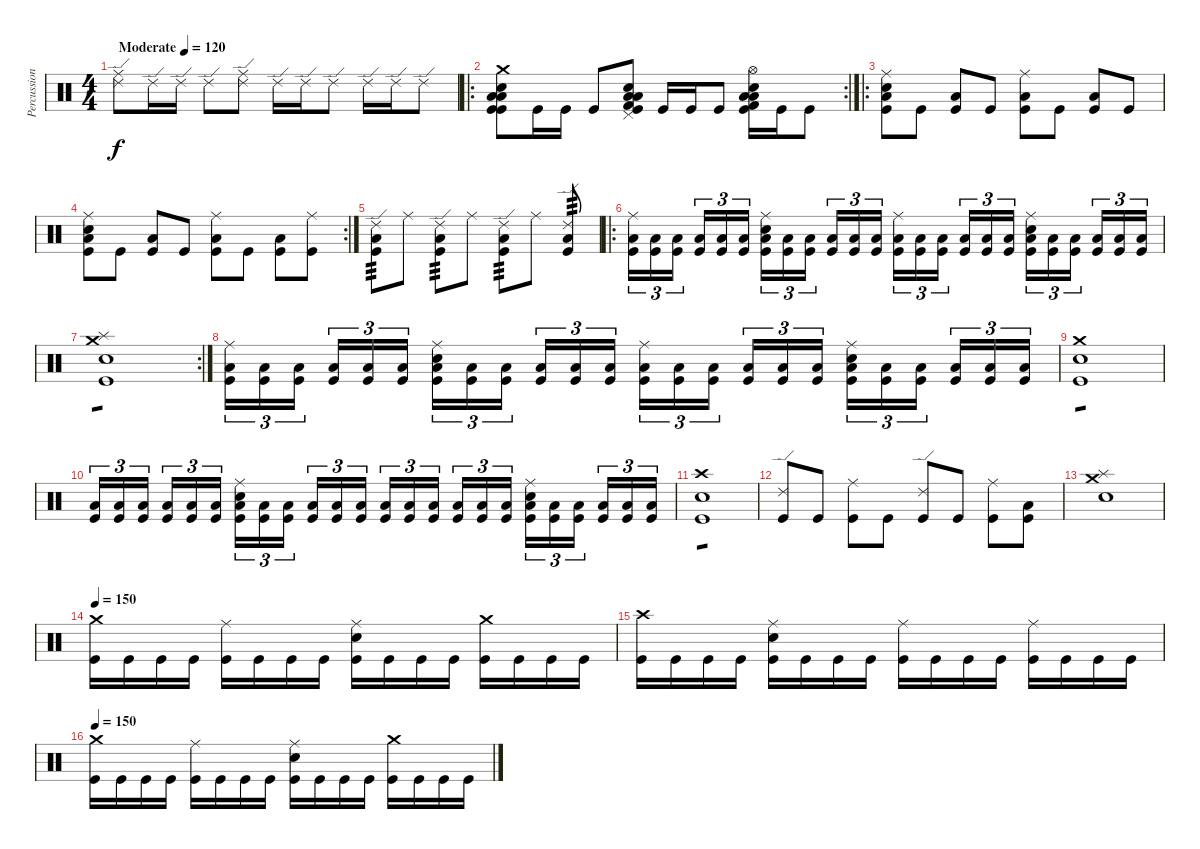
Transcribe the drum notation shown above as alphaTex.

\track ("Percussion" "Percussion") {instrument percussion}
\staff {score}
\articulation defaults
\ts (4 4)
\tempo (120 "Moderate")
\clef neutral
\ks c
("Ride (middle)" "Ride (edge) 2").8{dy f} "Ride (edge) 2".16 "Ride (edge) 2".16 "Ride (edge) 2".8 ("Ride (middle)" "Ride (edge) 2").8 "Ride (edge) 2".16 "Ride (edge) 2".16 "Ride (edge) 2".8 "Ride (edge) 2".16 "Ride (edge) 2".16 "Ride (edge) 2".8 |
\ro
\rc 2
("Crash medium (hit)" "Low Floor Tom (hit)" "Kick (hit)" "Electric Snare (hit)" "Low Floor Tom (hit)" "Kick (hit)").8 "Kick (hit)".16 "Kick (hit)".16 "Kick (hit)".8 ("Low Floor Tom (hit)" "Kick (hit) 2" "Pedal Hi-Hat (hit)" "Electric Snare (hit)" "Low Floor Tom (hit)" "Kick (hit)").8 "Kick (hit)".16 "Kick (hit)".16 "Kick (hit)".8 ("Low Floor Tom (hit)" "Kick (hit) 2" "Hi-Hat (open)" "Electric Snare (hit)" "Low Floor Tom (hit)" "Kick (hit)").16 "Kick (hit)".16 "Kick (hit)".8 |
\ro
("Ride (middle)" "Electric Snare (hit)" "Low Floor Tom (hit)" "Kick (hit)").8 "Kick (hit)".8 ("Low Floor Tom (hit)" "Kick (hit)").8 "Kick (hit)".8 ("Ride (middle)" "Low Floor Tom (hit)" "Kick (hit)").8 "Kick (hit)".8 ("Low Floor Tom (hit)" "Kick (hit)").8 "Kick (hit)".8 |
\rc 2
("Ride (middle)" "Electric Snare (hit)" "Low Floor Tom (hit)" "Kick (hit)").8 "Kick (hit)".8 ("Low Floor Tom (hit)" "Kick (hit)").8 "Kick (hit)".8 ("Ride (middle)" "Low Floor Tom (hit)" "Kick (hit)").8 "Kick (hit)".8 ("Low Floor Tom (hit)" "Kick (hit)").8 ("Ride (middle)" "Kick (hit)").8 |
("Ride (edge) 2" "Low Floor Tom (hit)" "Kick (hit)").8{tp 3} "Ride (middle)".8 ("Ride (edge) 2" "Low Floor Tom (hit)" "Kick (hit)").8{tp 3} "Ride (middle)".8 ("Ride (edge) 2" "Low Floor Tom (hit)" "Kick (hit)").8{tp 3} "Ride (middle)".8 ("Ride (edge) 2" "Low Floor Tom (hit)" "Kick (hit)").8{tp 3} |
\ro
("Ride (middle)" "Low Floor Tom (hit)" "Kick (hit)").16{tu (3 2)} ("Low Floor Tom (hit)" "Kick (hit)").16{tu (3 2)} ("Low Floor Tom (hit)" "Kick (hit)").16{tu (3 2) beam splitsecondary} ("Low Floor Tom (hit)" "Kick (hit)").16{tu (3 2)} ("Low Floor Tom (hit)" "Kick (hit)").16{tu (3 2)} ("Low Floor Tom (hit)" "Kick (hit)").16{tu (3 2)} ("Ride (middle)" "Electric Snare (hit)" "Low Floor Tom (hit)" "Kick (hit)").16{tu (3 2)} ("Low Floor Tom (hit)" "Kick (hit)").16{tu (3 2)} ("Low Floor Tom (hit)" "Kick (hit)").16{tu (3 2) beam splitsecondary} ("Low Floor Tom (hit)" "Kick (hit)").16{tu (3 2)} ("Low Floor Tom (hit)" "Kick (hit)").16{tu (3 2)} ("Low Floor Tom (hit)" "Kick (hit)").16{tu (3 2)} ("Ride (middle)" "Low Floor Tom (hit)" "Kick (hit)").16{tu (3 2)} ("Low Floor Tom (hit)" "Kick (hit)").16{tu (3 2)} ("Low Floor Tom (hit)" "Kick (hit)").16{tu (3 2) beam splitsecondary} ("Low Floor Tom (hit)" "Kick (hit)").16{tu (3 2)} ("Low Floor Tom (hit)" "Kick (hit)").16{tu (3 2)} ("Low Floor Tom (hit)" "Kick (hit)").16{tu (3 2)} ("Ride (middle)" "Electric Snare (hit)" "Low Floor Tom (hit)" "Kick (hit)").16{tu (3 2)} ("Low Floor Tom (hit)" "Kick (hit)").16{tu (3 2)} ("Low Floor Tom (hit)" "Kick (hit)").16{tu (3 2) beam splitsecondary} ("Low Floor Tom (hit)" "Kick (hit)").16{tu (3 2)} ("Low Floor Tom (hit)" "Kick (hit)").16{tu (3 2)} ("Low Floor Tom (hit)" "Kick (hit)").16{tu (3 2)} |
\rc 2
("Crash medium (hit)" "Splash (hit)" "Electric Snare (hit)" "Kick (hit)").1{tp 1} |
("Ride (middle)" "Low Floor Tom (hit)" "Kick (hit)").16{tu (3 2)} ("Low Floor Tom (hit)" "Kick (hit)").16{tu (3 2)} ("Low Floor Tom (hit)" "Kick (hit)").16{tu (3 2) beam splitsecondary} ("Low Floor Tom (hit)" "Kick (hit)").16{tu (3 2)} ("Low Floor Tom (hit)" "Kick (hit)").16{tu (3 2)} ("Low Floor Tom (hit)" "Kick (hit)").16{tu (3 2)} ("Ride (middle)" "Electric Snare (hit)" "Low Floor Tom (hit)" "Kick (hit)").16{tu (3 2)} ("Low Floor Tom (hit)" "Kick (hit)").16{tu (3 2)} ("Low Floor Tom (hit)" "Kick (hit)").16{tu (3 2) beam splitsecondary} ("Low Floor Tom (hit)" "Kick (hit)").16{tu (3 2)} ("Low Floor Tom (hit)" "Kick (hit)").16{tu (3 2)} ("Low Floor Tom (hit)" "Kick (hit)").16{tu (3 2)} ("Ride (middle)" "Low Floor Tom (hit)" "Kick (hit)").16{tu (3 2)} ("Low Floor Tom (hit)" "Kick (hit)").16{tu (3 2)} ("Low Floor Tom (hit)" "Kick (hit)").16{tu (3 2) beam splitsecondary} ("Low Floor Tom (hit)" "Kick (hit)").16{tu (3 2)} ("Low Floor Tom (hit)" "Kick (hit)").16{tu (3 2)} ("Low Floor Tom (hit)" "Kick (hit)").16{tu (3 2)} ("Ride (middle)" "Electric Snare (hit)" "Low Floor Tom (hit)" "Kick (hit)").16{tu (3 2)} ("Low Floor Tom (hit)" "Kick (hit)").16{tu (3 2)} ("Low Floor Tom (hit)" "Kick (hit)").16{tu (3 2) beam splitsecondary} ("Low Floor Tom (hit)" "Kick (hit)").16{tu (3 2)} ("Low Floor Tom (hit)" "Kick (hit)").16{tu (3 2)} ("Low Floor Tom (hit)" "Kick (hit)").16{tu (3 2)} |
("Crash medium (hit)" "Electric Snare (hit)" "Kick (hit)").1{tp 1} |
("Low Floor Tom (hit)" "Kick (hit)").16{tu (3 2)} ("Low Floor Tom (hit)" "Kick (hit)").16{tu (3 2)} ("Low Floor Tom (hit)" "Kick (hit)").16{tu (3 2) beam splitsecondary} ("Low Floor Tom (hit)" "Kick (hit)").16{tu (3 2)} ("Low Floor Tom (hit)" "Kick (hit)").16{tu (3 2)} ("Low Floor Tom (hit)" "Kick (hit)").16{tu (3 2)} ("Ride (middle)" "Electric Snare (hit)" "Low Floor Tom (hit)" "Kick (hit)").16{tu (3 2)} ("Low Floor Tom (hit)" "Kick (hit)").16{tu (3 2)} ("Low Floor Tom (hit)" "Kick (hit)").16{tu (3 2) beam splitsecondary} ("Low Floor Tom (hit)" "Kick (hit)").16{tu (3 2)} ("Low Floor Tom (hit)" "Kick (hit)").16{tu (3 2)} ("Low Floor Tom (hit)" "Kick (hit)").16{tu (3 2)} ("Low Floor Tom (hit)" "Kick (hit)").16{tu (3 2)} ("Low Floor Tom (hit)" "Kick (hit)").16{tu (3 2)} ("Low Floor Tom (hit)" "Kick (hit)").16{tu (3 2) beam splitsecondary} ("Low Floor Tom (hit)" "Kick (hit)").16{tu (3 2)} ("Low Floor Tom (hit)" "Kick (hit)").16{tu (3 2)} ("Low Floor Tom (hit)" "Kick (hit)").16{tu (3 2)} ("Ride (middle)" "Electric Snare (hit)" "Low Floor Tom (hit)" "Kick (hit)").16{tu (3 2)} ("Low Floor Tom (hit)" "Kick (hit)").16{tu (3 2)} ("Low Floor Tom (hit)" "Kick (hit)").16{tu (3 2) beam splitsecondary} ("Low Floor Tom (hit)" "Kick (hit)").16{tu (3 2)} ("Low Floor Tom (hit)" "Kick (hit)").16{tu (3 2)} ("Low Floor Tom (hit)" "Kick (hit)").16{tu (3 2)} |
("Crash high (hit)" "Electric Snare (hit)" "Kick (hit)").1{tp 1} |
("Ride (edge) 2" "Kick (hit)").8 "Kick (hit)".8 ("Ride (middle)" "Kick (hit)").8 "Kick (hit)".8 ("Ride (edge) 2" "Kick (hit)").8 "Kick (hit)".8 ("Ride (middle)" "Kick (hit)").8 ("Low Floor Tom (hit)" "Kick (hit)").8 |
("Splash (hit)" "Crash medium (hit)" "Electric Snare (hit)").1 |
\tempo 150
("Crash medium (hit)" "Kick (hit)").16 "Kick (hit)".16 "Kick (hit)".16 "Kick (hit)".16 ("Ride (middle)" "Kick (hit)").16 "Kick (hit)".16 "Kick (hit)".16 "Kick (hit)".16 ("Ride (middle)" "Electric Snare (hit)" "Kick (hit)").16 "Kick (hit)".16 "Kick (hit)".16 "Kick (hit)".16 ("Crash medium (hit)" "Kick (hit)").16 "Kick (hit)".16 "Kick (hit)".16 "Kick (hit)".16 |
("Crash high (hit)" "Kick (hit)").16 "Kick (hit)".16 "Kick (hit)".16 "Kick (hit)".16 ("Ride (middle)" "Electric Snare (hit)" "Kick (hit)").16 "Kick (hit)".16 "Kick (hit)".16 "Kick (hit)".16 ("Ride (middle)" "Kick (hit)").16 "Kick (hit)".16 "Kick (hit)".16 "Kick (hit)".16 ("Ride (middle)" "Kick (hit)").16 "Kick (hit)".16 "Kick (hit)".16 "Kick (hit)".16 |
\tempo 150
("Crash medium (hit)" "Kick (hit)").16 "Kick (hit)".16 "Kick (hit)".16 "Kick (hit)".16 ("Ride (middle)" "Kick (hit)").16 "Kick (hit)".16 "Kick (hit)".16 "Kick (hit)".16 ("Ride (middle)" "Electric Snare (hit)" "Kick (hit)").16 "Kick (hit)".16 "Kick (hit)".16 "Kick (hit)".16 ("Crash medium (hit)" "Kick (hit)").16 "Kick (hit)".16 "Kick (hit)".16 "Kick (hit)".16
